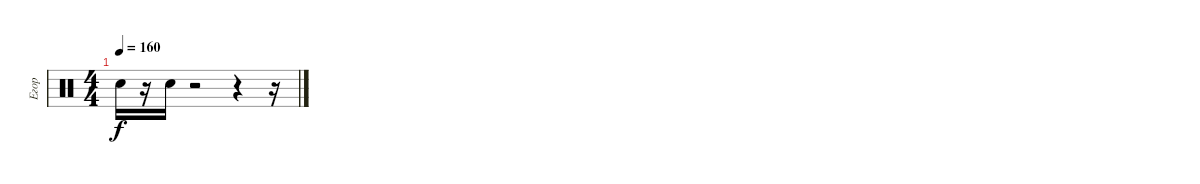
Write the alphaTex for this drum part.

\track ("Егор" "Егор") {instrument percussion}
\staff {score}
\articulation defaults
\ts (4 4)
\tempo 160
\clef neutral
\ks c "Snare (hit) 2".16{dy f}
r.16 "Snare (hit) 2".16 r.2 r.4 r.16
